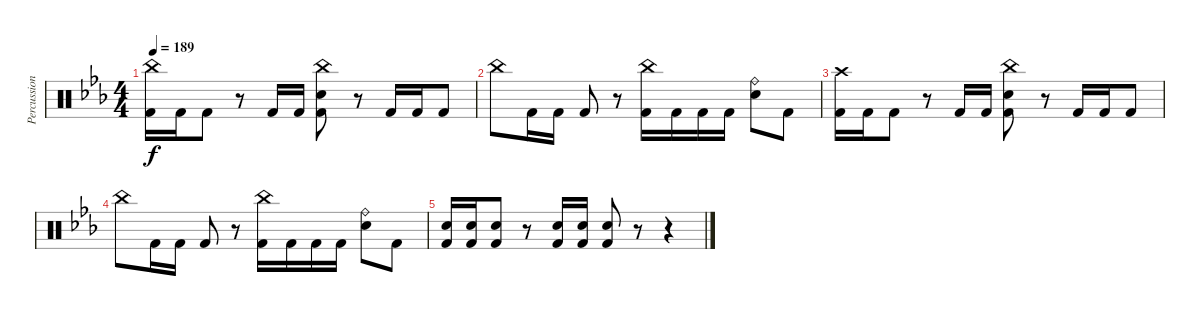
\track ("Percussion" "Percussion") {instrument percussion}
\staff {score}
\articulation defaults
\ts (4 4)
\tempo 189
\clef neutral
\ks eb
("China (hit)" "Kick (hit) 2").16{dy f} "Kick (hit) 2".16 "Kick (hit) 2".8 r.8 "Kick (hit) 2".16 "Kick (hit) 2".16 ("China (hit)" "Electric Snare (hit)" "Kick (hit) 2").8 r.8 "Kick (hit) 2".16 "Kick (hit) 2".16 "Kick (hit) 2".8 |
"China (hit)".8 "Kick (hit) 2".16 "Kick (hit) 2".16 "Kick (hit) 2".8 r.8 ("China (hit)" "Kick (hit) 2").16 "Kick (hit) 2".16 "Kick (hit) 2".16 "Kick (hit) 2".16 ("Ride (bell)" "Electric Snare (hit)").8 "Kick (hit) 2".8 |
("Crash high (hit)" "Kick (hit) 2").16 "Kick (hit) 2".16 "Kick (hit) 2".8 r.8 "Kick (hit) 2".16 "Kick (hit) 2".16 ("China (hit)" "Electric Snare (hit)" "Kick (hit) 2").8 r.8 "Kick (hit) 2".16 "Kick (hit) 2".16 "Kick (hit) 2".8 |
"China (hit)".8 "Kick (hit) 2".16 "Kick (hit) 2".16 "Kick (hit) 2".8 r.8 ("China (hit)" "Kick (hit) 2").16 "Kick (hit) 2".16 "Kick (hit) 2".16 "Kick (hit) 2".16 ("Ride (bell)" "Electric Snare (hit)").8 "Kick (hit) 2".8 |
("Electric Snare (hit)" "Kick (hit) 2").16 ("Electric Snare (hit)" "Kick (hit) 2").16 ("Electric Snare (hit)" "Kick (hit) 2").8 r.8 ("Electric Snare (hit)" "Kick (hit) 2").16 ("Electric Snare (hit)" "Kick (hit) 2").16 ("Electric Snare (hit)" "Kick (hit) 2").8 r.8 r.4
